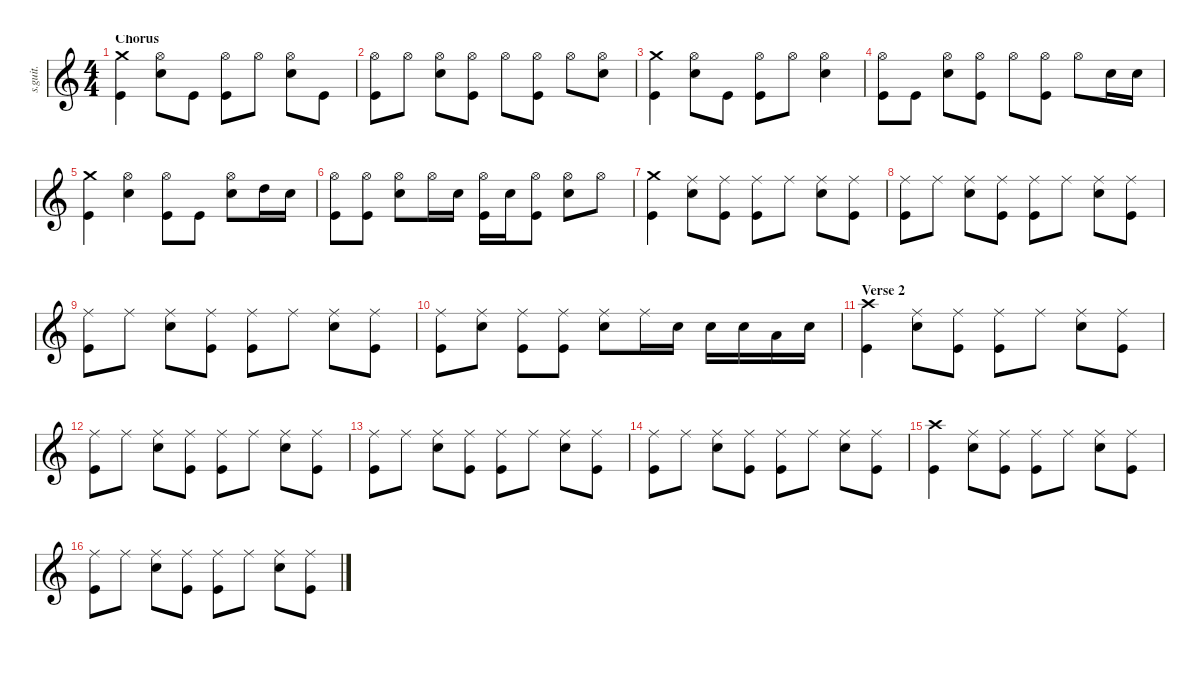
\defaultSystemsLayout 4
\hideDynamics
\bracketExtendMode nobrackets
\track ("Chad Channing - Drums" "s.guit.") {instrument percussion}
\staff {score}
\articulation defaults
\ts (4 4)
\section ("" "Chorus")
\tempo (126 hide)
\clef g2
\ks c
("Crash medium (hit)" "Kick (hit)").4{lyrics (0 "") lyrics (1 "") lyrics (2 "") lyrics (3 "") lyrics (4 "") dy f} ("Hi-Hat (open)" "Snare (hit) 2").8{lyrics (0 "") lyrics (1 "") lyrics (2 "") lyrics (3 "") lyrics (4 "")} "Kick (hit)".8{lyrics (0 "") lyrics (1 "") lyrics (2 "") lyrics (3 "") lyrics (4 "")} ("Hi-Hat (open)" "Kick (hit)").8{lyrics (0 "") lyrics (1 "") lyrics (2 "") lyrics (3 "") lyrics (4 "")} "Hi-Hat (open)".8{lyrics (0 "") lyrics (1 "") lyrics (2 "") lyrics (3 "") lyrics (4 "")} ("Hi-Hat (open)" "Snare (hit) 2").8{lyrics (0 "") lyrics (1 "") lyrics (2 "") lyrics (3 "") lyrics (4 "")} "Kick (hit)".8{lyrics (0 "") lyrics (1 "") lyrics (2 "") lyrics (3 "") lyrics (4 "")} |
("Hi-Hat (open)" "Kick (hit)").8{lyrics (0 "") lyrics (1 "") lyrics (2 "") lyrics (3 "") lyrics (4 "")} "Hi-Hat (open)".8{lyrics (0 "") lyrics (1 "") lyrics (2 "") lyrics (3 "") lyrics (4 "")} ("Hi-Hat (open)" "Snare (hit) 2").8{lyrics (0 "") lyrics (1 "") lyrics (2 "") lyrics (3 "") lyrics (4 "")} ("Hi-Hat (open)" "Kick (hit)").8{lyrics (0 "") lyrics (1 "") lyrics (2 "") lyrics (3 "") lyrics (4 "")} "Hi-Hat (open)".8{lyrics (0 "") lyrics (1 "") lyrics (2 "") lyrics (3 "") lyrics (4 "")} ("Hi-Hat (open)" "Kick (hit)").8{lyrics (0 "") lyrics (1 "") lyrics (2 "") lyrics (3 "") lyrics (4 "")} "Hi-Hat (open)".8{lyrics (0 "") lyrics (1 "") lyrics (2 "") lyrics (3 "") lyrics (4 "")} ("Hi-Hat (open)" "Snare (hit) 2").8{lyrics (0 "") lyrics (1 "") lyrics (2 "") lyrics (3 "") lyrics (4 "")} |
("Crash medium (hit)" "Kick (hit)").4{lyrics (0 "") lyrics (1 "") lyrics (2 "") lyrics (3 "") lyrics (4 "")} ("Hi-Hat (open)" "Snare (hit) 2").8{lyrics (0 "") lyrics (1 "") lyrics (2 "") lyrics (3 "") lyrics (4 "")} "Kick (hit)".8{lyrics (0 "") lyrics (1 "") lyrics (2 "") lyrics (3 "") lyrics (4 "")} ("Hi-Hat (open)" "Kick (hit)").8{lyrics (0 "") lyrics (1 "") lyrics (2 "") lyrics (3 "") lyrics (4 "")} "Hi-Hat (open)".8{lyrics (0 "") lyrics (1 "") lyrics (2 "") lyrics (3 "") lyrics (4 "")} ("Hi-Hat (open)" "Snare (hit) 2").4{lyrics (0 "") lyrics (1 "") lyrics (2 "") lyrics (3 "") lyrics (4 "")} |
("Hi-Hat (open)" "Kick (hit)").8{lyrics (0 "") lyrics (1 "") lyrics (2 "") lyrics (3 "") lyrics (4 "")} "Kick (hit)".8{lyrics (0 "") lyrics (1 "") lyrics (2 "") lyrics (3 "") lyrics (4 "")} ("Hi-Hat (open)" "Snare (hit) 2").8{lyrics (0 "") lyrics (1 "") lyrics (2 "") lyrics (3 "") lyrics (4 "")} ("Hi-Hat (open)" "Kick (hit)").8{lyrics (0 "") lyrics (1 "") lyrics (2 "") lyrics (3 "") lyrics (4 "")} "Hi-Hat (open)".8{lyrics (0 "") lyrics (1 "") lyrics (2 "") lyrics (3 "") lyrics (4 "")} ("Hi-Hat (open)" "Kick (hit)").8{lyrics (0 "") lyrics (1 "") lyrics (2 "") lyrics (3 "") lyrics (4 "")} "Hi-Hat (open)".8{lyrics (0 "") lyrics (1 "") lyrics (2 "") lyrics (3 "") lyrics (4 "")} "Snare (hit) 2".16{lyrics (0 "") lyrics (1 "") lyrics (2 "") lyrics (3 "") lyrics (4 "")} "Snare (hit) 2".16{lyrics (0 "") lyrics (1 "") lyrics (2 "") lyrics (3 "") lyrics (4 "")} |
("Crash medium (hit)" "Kick (hit)").4{lyrics (0 "") lyrics (1 "") lyrics (2 "") lyrics (3 "") lyrics (4 "")} ("Hi-Hat (open)" "Snare (hit) 2").4{lyrics (0 "") lyrics (1 "") lyrics (2 "") lyrics (3 "") lyrics (4 "")} ("Hi-Hat (open)" "Kick (hit)").8{lyrics (0 "") lyrics (1 "") lyrics (2 "") lyrics (3 "") lyrics (4 "")} "Kick (hit)".8{lyrics (0 "") lyrics (1 "") lyrics (2 "") lyrics (3 "") lyrics (4 "")} ("Hi-Hat (open)" "Snare (hit) 2").8{lyrics (0 "") lyrics (1 "") lyrics (2 "") lyrics (3 "") lyrics (4 "")} "High Tom (hit)".16{lyrics (0 "") lyrics (1 "") lyrics (2 "") lyrics (3 "") lyrics (4 "")} "Snare (hit) 2".16{lyrics (0 "") lyrics (1 "") lyrics (2 "") lyrics (3 "") lyrics (4 "")} |
("Hi-Hat (open)" "Kick (hit)").8{lyrics (0 "") lyrics (1 "") lyrics (2 "") lyrics (3 "") lyrics (4 "")} ("Hi-Hat (open)" "Kick (hit)").8{lyrics (0 "") lyrics (1 "") lyrics (2 "") lyrics (3 "") lyrics (4 "")} ("Hi-Hat (open)" "Snare (hit) 2").8{lyrics (0 "") lyrics (1 "") lyrics (2 "") lyrics (3 "") lyrics (4 "")} "Hi-Hat (open)".16{lyrics (0 "") lyrics (1 "") lyrics (2 "") lyrics (3 "") lyrics (4 "")} "Snare (hit) 2".16{lyrics (0 "") lyrics (1 "") lyrics (2 "") lyrics (3 "") lyrics (4 "")} ("Hi-Hat (open)" "Kick (hit)").16{lyrics (0 "") lyrics (1 "") lyrics (2 "") lyrics (3 "") lyrics (4 "")} "Snare (hit) 2".16{lyrics (0 "") lyrics (1 "") lyrics (2 "") lyrics (3 "") lyrics (4 "")} ("Hi-Hat (open)" "Kick (hit)").8{lyrics (0 "") lyrics (1 "") lyrics (2 "") lyrics (3 "") lyrics (4 "")} ("Hi-Hat (open)" "Snare (hit) 2").8{lyrics (0 "") lyrics (1 "") lyrics (2 "") lyrics (3 "") lyrics (4 "")} "Hi-Hat (open)".8{lyrics (0 "") lyrics (1 "") lyrics (2 "") lyrics (3 "") lyrics (4 "")} |
("Crash medium (hit)" "Kick (hit)").4{lyrics (0 "") lyrics (1 "") lyrics (2 "") lyrics (3 "") lyrics (4 "")} ("Ride (middle)" "Snare (hit) 2").8{lyrics (0 "") lyrics (1 "") lyrics (2 "") lyrics (3 "") lyrics (4 "")} ("Ride (middle)" "Kick (hit)").8{lyrics (0 "") lyrics (1 "") lyrics (2 "") lyrics (3 "") lyrics (4 "")} ("Ride (middle)" "Kick (hit)").8{lyrics (0 "") lyrics (1 "") lyrics (2 "") lyrics (3 "") lyrics (4 "")} "Ride (middle)".8{lyrics (0 "") lyrics (1 "") lyrics (2 "") lyrics (3 "") lyrics (4 "")} ("Ride (middle)" "Snare (hit) 2").8{lyrics (0 "") lyrics (1 "") lyrics (2 "") lyrics (3 "") lyrics (4 "")} ("Ride (middle)" "Kick (hit)").8{lyrics (0 "") lyrics (1 "") lyrics (2 "") lyrics (3 "") lyrics (4 "")} |
("Ride (middle)" "Kick (hit)").8{lyrics (0 "") lyrics (1 "") lyrics (2 "") lyrics (3 "") lyrics (4 "")} "Ride (middle)".8{lyrics (0 "") lyrics (1 "") lyrics (2 "") lyrics (3 "") lyrics (4 "")} ("Ride (middle)" "Snare (hit) 2").8{lyrics (0 "") lyrics (1 "") lyrics (2 "") lyrics (3 "") lyrics (4 "")} ("Ride (middle)" "Kick (hit)").8{lyrics (0 "") lyrics (1 "") lyrics (2 "") lyrics (3 "") lyrics (4 "")} ("Ride (middle)" "Kick (hit)").8{lyrics (0 "") lyrics (1 "") lyrics (2 "") lyrics (3 "") lyrics (4 "")} "Ride (middle)".8{lyrics (0 "") lyrics (1 "") lyrics (2 "") lyrics (3 "") lyrics (4 "")} ("Ride (middle)" "Snare (hit) 2").8{lyrics (0 "") lyrics (1 "") lyrics (2 "") lyrics (3 "") lyrics (4 "")} ("Ride (middle)" "Kick (hit)").8{lyrics (0 "") lyrics (1 "") lyrics (2 "") lyrics (3 "") lyrics (4 "")} |
("Ride (middle)" "Kick (hit)").8{lyrics (0 "") lyrics (1 "") lyrics (2 "") lyrics (3 "") lyrics (4 "")} "Ride (middle)".8{lyrics (0 "") lyrics (1 "") lyrics (2 "") lyrics (3 "") lyrics (4 "")} ("Ride (middle)" "Snare (hit) 2").8{lyrics (0 "") lyrics (1 "") lyrics (2 "") lyrics (3 "") lyrics (4 "")} ("Ride (middle)" "Kick (hit)").8{lyrics (0 "") lyrics (1 "") lyrics (2 "") lyrics (3 "") lyrics (4 "")} ("Ride (middle)" "Kick (hit)").8{lyrics (0 "") lyrics (1 "") lyrics (2 "") lyrics (3 "") lyrics (4 "")} "Ride (middle)".8{lyrics (0 "") lyrics (1 "") lyrics (2 "") lyrics (3 "") lyrics (4 "")} ("Ride (middle)" "Snare (hit) 2").8{lyrics (0 "") lyrics (1 "") lyrics (2 "") lyrics (3 "") lyrics (4 "")} ("Ride (middle)" "Kick (hit)").8{lyrics (0 "") lyrics (1 "") lyrics (2 "") lyrics (3 "") lyrics (4 "")} |
("Ride (middle)" "Kick (hit)").8{lyrics (0 "") lyrics (1 "") lyrics (2 "") lyrics (3 "") lyrics (4 "")} ("Ride (middle)" "Snare (hit) 2").8{lyrics (0 "") lyrics (1 "") lyrics (2 "") lyrics (3 "") lyrics (4 "")} ("Ride (middle)" "Kick (hit)").8{lyrics (0 "") lyrics (1 "") lyrics (2 "") lyrics (3 "") lyrics (4 "")} ("Ride (middle)" "Kick (hit)").8{lyrics (0 "") lyrics (1 "") lyrics (2 "") lyrics (3 "") lyrics (4 "")} ("Ride (middle)" "Snare (hit) 2").8{lyrics (0 "") lyrics (1 "") lyrics (2 "") lyrics (3 "") lyrics (4 "")} "Ride (middle)".16{lyrics (0 "") lyrics (1 "") lyrics (2 "") lyrics (3 "") lyrics (4 "")} "Snare (hit) 2".16{lyrics (0 "") lyrics (1 "") lyrics (2 "") lyrics (3 "") lyrics (4 "")} "Snare (hit) 2".16{lyrics (0 "") lyrics (1 "") lyrics (2 "") lyrics (3 "") lyrics (4 "")} "Snare (hit) 2".16{lyrics (0 "") lyrics (1 "") lyrics (2 "") lyrics (3 "") lyrics (4 "")} "Low Floor Tom (hit)".16{lyrics (0 "") lyrics (1 "") lyrics (2 "") lyrics (3 "") lyrics (4 "")} "Snare (hit) 2".16{lyrics (0 "") lyrics (1 "") lyrics (2 "") lyrics (3 "") lyrics (4 "")} |
\section ("" "Verse 2")
("Kick (hit)" "Crash high (hit)").4{lyrics (0 "") lyrics (1 "") lyrics (2 "") lyrics (3 "") lyrics (4 "")} ("Ride (middle)" "Snare (hit) 2").8{lyrics (0 "") lyrics (1 "") lyrics (2 "") lyrics (3 "") lyrics (4 "")} ("Ride (middle)" "Kick (hit)").8{lyrics (0 "") lyrics (1 "") lyrics (2 "") lyrics (3 "") lyrics (4 "")} ("Ride (middle)" "Kick (hit)").8{lyrics (0 "") lyrics (1 "") lyrics (2 "") lyrics (3 "") lyrics (4 "")} "Ride (middle)".8{lyrics (0 "") lyrics (1 "") lyrics (2 "") lyrics (3 "") lyrics (4 "")} ("Ride (middle)" "Snare (hit) 2").8{lyrics (0 "") lyrics (1 "") lyrics (2 "") lyrics (3 "") lyrics (4 "")} ("Ride (middle)" "Kick (hit)").8{lyrics (0 "") lyrics (1 "") lyrics (2 "") lyrics (3 "") lyrics (4 "")} |
("Ride (middle)" "Kick (hit)").8{lyrics (0 "") lyrics (1 "") lyrics (2 "") lyrics (3 "") lyrics (4 "")} "Ride (middle)".8{lyrics (0 "") lyrics (1 "") lyrics (2 "") lyrics (3 "") lyrics (4 "")} ("Ride (middle)" "Snare (hit) 2").8{lyrics (0 "") lyrics (1 "") lyrics (2 "") lyrics (3 "") lyrics (4 "")} ("Ride (middle)" "Kick (hit)").8{lyrics (0 "") lyrics (1 "") lyrics (2 "") lyrics (3 "") lyrics (4 "")} ("Ride (middle)" "Kick (hit)").8{lyrics (0 "") lyrics (1 "") lyrics (2 "") lyrics (3 "") lyrics (4 "")} "Ride (middle)".8{lyrics (0 "") lyrics (1 "") lyrics (2 "") lyrics (3 "") lyrics (4 "")} ("Ride (middle)" "Snare (hit) 2").8{lyrics (0 "") lyrics (1 "") lyrics (2 "") lyrics (3 "") lyrics (4 "")} ("Ride (middle)" "Kick (hit)").8{lyrics (0 "") lyrics (1 "") lyrics (2 "") lyrics (3 "") lyrics (4 "")} |
("Ride (middle)" "Kick (hit)").8{lyrics (0 "") lyrics (1 "") lyrics (2 "") lyrics (3 "") lyrics (4 "")} "Ride (middle)".8{lyrics (0 "") lyrics (1 "") lyrics (2 "") lyrics (3 "") lyrics (4 "")} ("Ride (middle)" "Snare (hit) 2").8{lyrics (0 "") lyrics (1 "") lyrics (2 "") lyrics (3 "") lyrics (4 "")} ("Ride (middle)" "Kick (hit)").8{lyrics (0 "") lyrics (1 "") lyrics (2 "") lyrics (3 "") lyrics (4 "")} ("Ride (middle)" "Kick (hit)").8{lyrics (0 "") lyrics (1 "") lyrics (2 "") lyrics (3 "") lyrics (4 "")} "Ride (middle)".8{lyrics (0 "") lyrics (1 "") lyrics (2 "") lyrics (3 "") lyrics (4 "")} ("Ride (middle)" "Snare (hit) 2").8{lyrics (0 "") lyrics (1 "") lyrics (2 "") lyrics (3 "") lyrics (4 "")} ("Ride (middle)" "Kick (hit)").8{lyrics (0 "") lyrics (1 "") lyrics (2 "") lyrics (3 "") lyrics (4 "")} |
("Ride (middle)" "Kick (hit)").8{lyrics (0 "") lyrics (1 "") lyrics (2 "") lyrics (3 "") lyrics (4 "")} "Ride (middle)".8{lyrics (0 "") lyrics (1 "") lyrics (2 "") lyrics (3 "") lyrics (4 "")} ("Ride (middle)" "Snare (hit) 2").8{lyrics (0 "") lyrics (1 "") lyrics (2 "") lyrics (3 "") lyrics (4 "")} ("Ride (middle)" "Kick (hit)").8{lyrics (0 "") lyrics (1 "") lyrics (2 "") lyrics (3 "") lyrics (4 "")} ("Ride (middle)" "Kick (hit)").8{lyrics (0 "") lyrics (1 "") lyrics (2 "") lyrics (3 "") lyrics (4 "")} "Ride (middle)".8{lyrics (0 "") lyrics (1 "") lyrics (2 "") lyrics (3 "") lyrics (4 "")} ("Ride (middle)" "Snare (hit) 2").8{lyrics (0 "") lyrics (1 "") lyrics (2 "") lyrics (3 "") lyrics (4 "")} ("Ride (middle)" "Kick (hit)").8{lyrics (0 "") lyrics (1 "") lyrics (2 "") lyrics (3 "") lyrics (4 "")} |
("Kick (hit)" "Crash high (hit)").4{lyrics (0 "") lyrics (1 "") lyrics (2 "") lyrics (3 "") lyrics (4 "")} ("Ride (middle)" "Snare (hit) 2").8{lyrics (0 "") lyrics (1 "") lyrics (2 "") lyrics (3 "") lyrics (4 "")} ("Ride (middle)" "Kick (hit)").8{lyrics (0 "") lyrics (1 "") lyrics (2 "") lyrics (3 "") lyrics (4 "")} ("Ride (middle)" "Kick (hit)").8{lyrics (0 "") lyrics (1 "") lyrics (2 "") lyrics (3 "") lyrics (4 "")} "Ride (middle)".8{lyrics (0 "") lyrics (1 "") lyrics (2 "") lyrics (3 "") lyrics (4 "")} ("Ride (middle)" "Snare (hit) 2").8{lyrics (0 "") lyrics (1 "") lyrics (2 "") lyrics (3 "") lyrics (4 "")} ("Ride (middle)" "Kick (hit)").8{lyrics (0 "") lyrics (1 "") lyrics (2 "") lyrics (3 "") lyrics (4 "")} |
("Ride (middle)" "Kick (hit)").8{lyrics (0 "") lyrics (1 "") lyrics (2 "") lyrics (3 "") lyrics (4 "")} "Ride (middle)".8{lyrics (0 "") lyrics (1 "") lyrics (2 "") lyrics (3 "") lyrics (4 "")} ("Ride (middle)" "Snare (hit) 2").8{lyrics (0 "") lyrics (1 "") lyrics (2 "") lyrics (3 "") lyrics (4 "")} ("Ride (middle)" "Kick (hit)").8{lyrics (0 "") lyrics (1 "") lyrics (2 "") lyrics (3 "") lyrics (4 "")} ("Ride (middle)" "Kick (hit)").8{lyrics (0 "") lyrics (1 "") lyrics (2 "") lyrics (3 "") lyrics (4 "")} "Ride (middle)".8{lyrics (0 "") lyrics (1 "") lyrics (2 "") lyrics (3 "") lyrics (4 "")} ("Ride (middle)" "Snare (hit) 2").8{lyrics (0 "") lyrics (1 "") lyrics (2 "") lyrics (3 "") lyrics (4 "")} ("Ride (middle)" "Kick (hit)").8{lyrics (0 "") lyrics (1 "") lyrics (2 "") lyrics (3 "") lyrics (4 "")}
